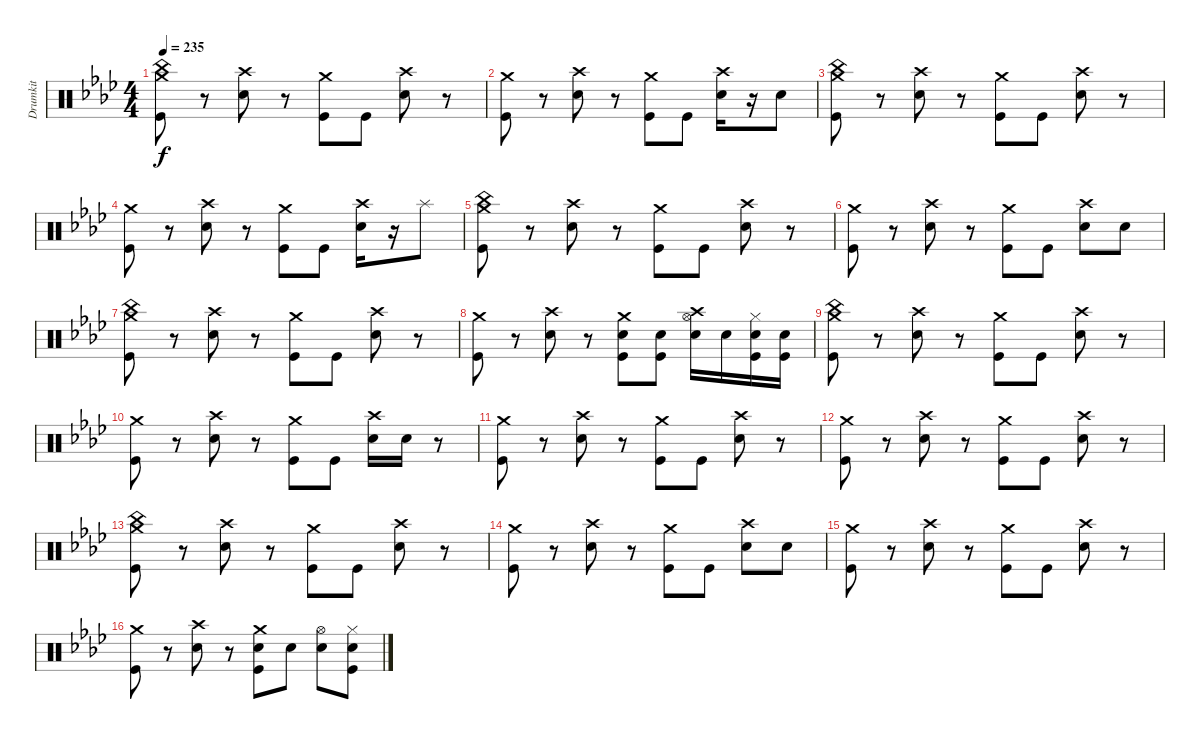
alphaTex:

\track ("Drumkit" "Drumkit") {instrument percussion}
\staff {score}
\articulation defaults
\ts (4 4)
\tempo 235
\clef neutral
\ks ab
("Crash medium (hit)" "China (hit)" "Kick (hit)").8{dy f} r.8 ("Crash high (hit)" "Electric Snare (hit)").8 r.8 ("Crash medium (hit)" "Kick (hit)").8 "Kick (hit)".8 ("Crash high (hit)" "Electric Snare (hit)").8 r.8 |
("Crash medium (hit)" "Kick (hit)").8 r.8 ("Crash high (hit)" "Electric Snare (hit)").8 r.8 ("Crash medium (hit)" "Kick (hit)").8 "Kick (hit)".8 ("Crash high (hit)" "Electric Snare (hit)").16 r.16 "Electric Snare (hit)".8 |
("Crash medium (hit)" "China (hit)" "Kick (hit)").8 r.8 ("Crash high (hit)" "Electric Snare (hit)").8 r.8 ("Crash medium (hit)" "Kick (hit)").8 "Kick (hit)".8 ("Crash high (hit)" "Electric Snare (hit)").8 r.8 |
("Crash medium (hit)" "Kick (hit)").8 r.8 ("Crash high (hit)" "Electric Snare (hit)").8 r.8 ("Crash medium (hit)" "Kick (hit)").8 "Kick (hit)".8 ("Crash high (hit)" "Electric Snare (hit)").16 r.16 "Splash (hit)".8 |
("Crash medium (hit)" "China (hit)" "Kick (hit)").8 r.8 ("Crash high (hit)" "Electric Snare (hit)").8 r.8 ("Crash medium (hit)" "Kick (hit)").8 "Kick (hit)".8 ("Crash high (hit)" "Electric Snare (hit)").8 r.8 |
("Crash medium (hit)" "Kick (hit)").8 r.8 ("Crash high (hit)" "Electric Snare (hit)").8 r.8 ("Crash medium (hit)" "Kick (hit)").8 "Kick (hit)".8 ("Crash high (hit)" "Electric Snare (hit)").8 "Electric Snare (hit)".8 |
("Crash medium (hit)" "China (hit)" "Kick (hit)").8 r.8 ("Crash high (hit)" "Electric Snare (hit)").8 r.8 ("Crash medium (hit)" "Kick (hit)").8 "Kick (hit)".8 ("Crash high (hit)" "Electric Snare (hit)").8 r.8 |
("Crash medium (hit)" "Kick (hit)").8 r.8 ("Crash high (hit)" "Electric Snare (hit)").8 r.8 ("Crash medium (hit)" "Electric Snare (hit)" "Kick (hit)").8 ("Electric Snare (hit)" "Kick (hit)").8 ("Crash high (hit)" "Hi-Hat (open)" "Electric Snare (hit)").16 "Electric Snare (hit)".16 ("Hi-Hat (closed)" "Electric Snare (hit)" "Kick (hit)").16 ("Electric Snare (hit)" "Kick (hit)").16 |
("Crash medium (hit)" "China (hit)" "Kick (hit)").8 r.8 ("Crash high (hit)" "Electric Snare (hit)").8 r.8 ("Crash medium (hit)" "Kick (hit)").8 "Kick (hit)".8 ("Crash high (hit)" "Electric Snare (hit)").8 r.8 |
("Crash medium (hit)" "Kick (hit)").8 r.8 ("Crash high (hit)" "Electric Snare (hit)").8 r.8 ("Crash medium (hit)" "Kick (hit)").8 "Kick (hit)".8 ("Crash high (hit)" "Electric Snare (hit)").16 "Electric Snare (hit)".16 r.8 |
("Crash medium (hit)" "Kick (hit)").8 r.8 ("Crash high (hit)" "Electric Snare (hit)").8 r.8 ("Crash medium (hit)" "Kick (hit)").8 "Kick (hit)".8 ("Crash high (hit)" "Electric Snare (hit)").8 r.8 |
("Crash medium (hit)" "Kick (hit)").8 r.8 ("Crash high (hit)" "Electric Snare (hit)").8 r.8 ("Crash medium (hit)" "Kick (hit)").8 "Kick (hit)".8 ("Crash high (hit)" "Electric Snare (hit)").8 r.8 |
("Crash medium (hit)" "China (hit)" "Kick (hit)").8 r.8 ("Crash high (hit)" "Electric Snare (hit)").8 r.8 ("Crash medium (hit)" "Kick (hit)").8 "Kick (hit)".8 ("Crash high (hit)" "Electric Snare (hit)").8 r.8 |
("Crash medium (hit)" "Kick (hit)").8 r.8 ("Crash high (hit)" "Electric Snare (hit)").8 r.8 ("Crash medium (hit)" "Kick (hit)").8 "Kick (hit)".8 ("Crash high (hit)" "Electric Snare (hit)").8 "Electric Snare (hit)".8 |
("Crash medium (hit)" "Kick (hit)").8 r.8 ("Crash high (hit)" "Electric Snare (hit)").8 r.8 ("Crash medium (hit)" "Kick (hit)").8 "Kick (hit)".8 ("Crash high (hit)" "Electric Snare (hit)").8 r.8 |
("Crash medium (hit)" "Kick (hit)").8 r.8 ("Crash high (hit)" "Electric Snare (hit)").8 r.8 ("Crash medium (hit)" "Electric Snare (hit)" "Kick (hit)").8 "Electric Snare (hit)".8 ("Hi-Hat (open)" "Electric Snare (hit)").8 ("Hi-Hat (closed)" "Electric Snare (hit)" "Kick (hit)").8
